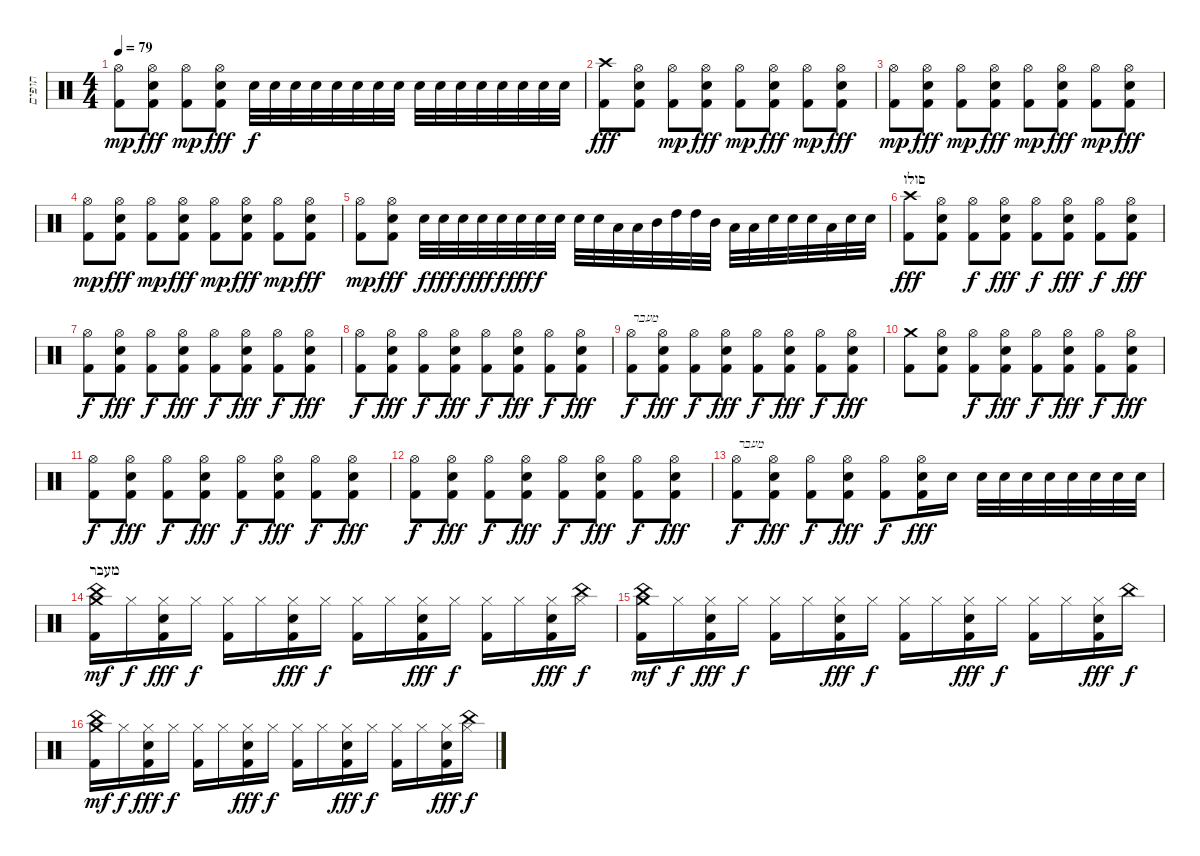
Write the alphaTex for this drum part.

\track ("תופים" "תופים") {instrument percussion}
\staff {score}
\articulation defaults
\ts (4 4)
\tempo 79
\clef neutral
\ks c
("Hi-Hat (open)" "Kick (hit) 2").8{dy mp} ("Hi-Hat (open)" "Snare (hit) 2" "Kick (hit) 2").8{dy fff} ("Hi-Hat (open)" "Kick (hit) 2").8{dy mp} ("Hi-Hat (open)" "Snare (hit) 2" "Kick (hit) 2").8{dy fff} "Snare (hit) 2".32{dy f} "Snare (hit) 2".32 "Snare (hit) 2".32 "Snare (hit) 2".32 "Snare (hit) 2".32 "Snare (hit) 2".32 "Snare (hit) 2".32 "Snare (hit) 2".32 "Snare (hit) 2".32 "Snare (hit) 2".32 "Snare (hit) 2".32 "Snare (hit) 2".32 "Snare (hit) 2".32 "Snare (hit) 2".32 "Snare (hit) 2".32 "Snare (hit) 2".32 |
("Crash high (hit)" "Kick (hit) 2").8{dy fff} ("Hi-Hat (open)" "Snare (hit) 2" "Kick (hit) 2").8 ("Hi-Hat (open)" "Kick (hit) 2").8{dy mp} ("Hi-Hat (open)" "Snare (hit) 2" "Kick (hit) 2").8{dy fff} ("Hi-Hat (open)" "Kick (hit) 2").8{dy mp} ("Hi-Hat (open)" "Snare (hit) 2" "Kick (hit) 2").8{dy fff} ("Hi-Hat (open)" "Kick (hit) 2").8{dy mp} ("Hi-Hat (open)" "Snare (hit) 2" "Kick (hit) 2").8{dy fff} |
("Hi-Hat (open)" "Kick (hit) 2").8{dy mp} ("Hi-Hat (open)" "Snare (hit) 2" "Kick (hit) 2").8{dy fff} ("Hi-Hat (open)" "Kick (hit) 2").8{dy mp} ("Hi-Hat (open)" "Snare (hit) 2" "Kick (hit) 2").8{dy fff} ("Hi-Hat (open)" "Kick (hit) 2").8{dy mp} ("Hi-Hat (open)" "Snare (hit) 2" "Kick (hit) 2").8{dy fff} ("Hi-Hat (open)" "Kick (hit) 2").8{dy mp} ("Hi-Hat (open)" "Snare (hit) 2" "Kick (hit) 2").8{dy fff} |
("Hi-Hat (open)" "Kick (hit) 2").8{dy mp} ("Hi-Hat (open)" "Snare (hit) 2" "Kick (hit) 2").8{dy fff} ("Hi-Hat (open)" "Kick (hit) 2").8{dy mp} ("Hi-Hat (open)" "Snare (hit) 2" "Kick (hit) 2").8{dy fff} ("Hi-Hat (open)" "Kick (hit) 2").8{dy mp} ("Hi-Hat (open)" "Snare (hit) 2" "Kick (hit) 2").8{dy fff} ("Hi-Hat (open)" "Kick (hit) 2").8{dy mp} ("Hi-Hat (open)" "Snare (hit) 2" "Kick (hit) 2").8{dy fff} |
("Hi-Hat (open)" "Kick (hit) 2").8{dy mp} ("Hi-Hat (open)" "Snare (hit) 2" "Kick (hit) 2").8{dy fff} "Snare (hit) 2".32{dy f} "Snare (hit) 2".32{dy fff} "Snare (hit) 2".32{dy f} "Snare (hit) 2".32{dy fff} "Snare (hit) 2".32{dy f} "Snare (hit) 2".32{dy fff} "Snare (hit) 2".32{dy f} "Snare (hit) 2".32 "Snare (hit) 2".32 "Snare (hit) 2".32 "Low Tom (hit)".32 "Low Tom (hit)".32 "Mid Tom (hit)".32 "High Tom (hit)".32 "High Tom (hit)".32 "Mid Tom (hit)".32 "Low Tom (hit)".32 "Low Tom (hit)".32 "Snare (hit) 2".32 "Snare (hit) 2".32 "Snare (hit) 2".32 "Low Tom (hit)".32 "Snare (hit) 2".32 "Snare (hit) 2".32 |
\section ("" "סולו")
("Crash high (hit)" "Kick (hit) 2").8{dy fff} ("Hi-Hat (open)" "Snare (hit) 2" "Kick (hit) 2").8 ("Hi-Hat (open)" "Kick (hit) 2").8{dy f} ("Hi-Hat (open)" "Snare (hit) 2" "Kick (hit) 2").8{dy fff} ("Hi-Hat (open)" "Kick (hit) 2").8{dy f} ("Hi-Hat (open)" "Snare (hit) 2" "Kick (hit) 2").8{dy fff} ("Hi-Hat (open)" "Kick (hit) 2").8{dy f} ("Hi-Hat (open)" "Snare (hit) 2" "Kick (hit) 2").8{dy fff} |
("Hi-Hat (open)" "Kick (hit) 2").8{dy f} ("Hi-Hat (open)" "Snare (hit) 2" "Kick (hit) 2").8{dy fff} ("Hi-Hat (open)" "Kick (hit) 2").8{dy f} ("Hi-Hat (open)" "Snare (hit) 2" "Kick (hit) 2").8{dy fff} ("Hi-Hat (open)" "Kick (hit) 2").8{dy f} ("Hi-Hat (open)" "Snare (hit) 2" "Kick (hit) 2").8{dy fff} ("Hi-Hat (open)" "Kick (hit) 2").8{dy f} ("Hi-Hat (open)" "Snare (hit) 2" "Kick (hit) 2").8{dy fff} |
("Hi-Hat (open)" "Kick (hit) 2").8{dy f} ("Hi-Hat (open)" "Snare (hit) 2" "Kick (hit) 2").8{dy fff} ("Hi-Hat (open)" "Kick (hit) 2").8{dy f} ("Hi-Hat (open)" "Snare (hit) 2" "Kick (hit) 2").8{dy fff} ("Hi-Hat (open)" "Kick (hit) 2").8{dy f} ("Hi-Hat (open)" "Snare (hit) 2" "Kick (hit) 2").8{dy fff} ("Hi-Hat (open)" "Kick (hit) 2").8{dy f} ("Hi-Hat (open)" "Snare (hit) 2" "Kick (hit) 2").8{dy fff} |
("Hi-Hat (open)" "Kick (hit) 2").8{txt "מעבר" dy f} ("Hi-Hat (open)" "Snare (hit) 2" "Kick (hit) 2").8{dy fff} ("Hi-Hat (open)" "Kick (hit) 2").8{dy f} ("Hi-Hat (open)" "Snare (hit) 2" "Kick (hit) 2").8{dy fff} ("Hi-Hat (open)" "Kick (hit) 2").8{dy f} ("Hi-Hat (open)" "Snare (hit) 2" "Kick (hit) 2").8{dy fff} ("Hi-Hat (open)" "Kick (hit) 2").8{dy f} ("Hi-Hat (open)" "Snare (hit) 2" "Kick (hit) 2").8{dy fff} |
("Crash medium (hit)" "Kick (hit) 2").8 ("Hi-Hat (open)" "Snare (hit) 2" "Kick (hit) 2").8 ("Hi-Hat (open)" "Kick (hit) 2").8{dy f} ("Hi-Hat (open)" "Snare (hit) 2" "Kick (hit) 2").8{dy fff} ("Hi-Hat (open)" "Kick (hit) 2").8{dy f} ("Hi-Hat (open)" "Snare (hit) 2" "Kick (hit) 2").8{dy fff} ("Hi-Hat (open)" "Kick (hit) 2").8{dy f} ("Hi-Hat (open)" "Snare (hit) 2" "Kick (hit) 2").8{dy fff} |
("Hi-Hat (open)" "Kick (hit) 2").8{dy f} ("Hi-Hat (open)" "Snare (hit) 2" "Kick (hit) 2").8{dy fff} ("Hi-Hat (open)" "Kick (hit) 2").8{dy f} ("Hi-Hat (open)" "Snare (hit) 2" "Kick (hit) 2").8{dy fff} ("Hi-Hat (open)" "Kick (hit) 2").8{dy f} ("Hi-Hat (open)" "Snare (hit) 2" "Kick (hit) 2").8{dy fff} ("Hi-Hat (open)" "Kick (hit) 2").8{dy f} ("Hi-Hat (open)" "Snare (hit) 2" "Kick (hit) 2").8{dy fff} |
("Hi-Hat (open)" "Kick (hit) 2").8{dy f} ("Hi-Hat (open)" "Snare (hit) 2" "Kick (hit) 2").8{dy fff} ("Hi-Hat (open)" "Kick (hit) 2").8{dy f} ("Hi-Hat (open)" "Snare (hit) 2" "Kick (hit) 2").8{dy fff} ("Hi-Hat (open)" "Kick (hit) 2").8{dy f} ("Hi-Hat (open)" "Snare (hit) 2" "Kick (hit) 2").8{dy fff} ("Hi-Hat (open)" "Kick (hit) 2").8{dy f} ("Hi-Hat (open)" "Snare (hit) 2" "Kick (hit) 2").8{dy fff} |
("Hi-Hat (open)" "Kick (hit) 2").8{txt "מעבר" dy f} ("Hi-Hat (open)" "Snare (hit) 2" "Kick (hit) 2").8{dy fff} ("Hi-Hat (open)" "Kick (hit) 2").8{dy f} ("Hi-Hat (open)" "Snare (hit) 2" "Kick (hit) 2").8{dy fff} ("Hi-Hat (open)" "Kick (hit) 2").8{dy f} ("Hi-Hat (open)" "Snare (hit) 2" "Kick (hit) 2").16{dy fff} "Snare (hit) 2".16 "Snare (hit) 2".32 "Snare (hit) 2".32 "Snare (hit) 2".32 "Snare (hit) 2".32 "Snare (hit) 2".32 "Snare (hit) 2".32 "Snare (hit) 2".32 "Snare (hit) 2".32 |
\section ("" "מעבר")
("Crash medium (hit)" "China (hit)" "Kick (hit) 2").16{dy mf} "Hi-Hat (closed)".16{dy f} ("Hi-Hat (closed)" "Snare (hit) 2" "Kick (hit) 2").16{dy fff} "Hi-Hat (closed)".16{dy f} ("Hi-Hat (closed)" "Kick (hit) 2").16 "Hi-Hat (closed)".16 ("Hi-Hat (closed)" "Snare (hit) 2" "Kick (hit) 2").16{dy fff} "Hi-Hat (closed)".16{dy f} ("Hi-Hat (closed)" "Kick (hit) 2").16 "Hi-Hat (closed)".16 ("Hi-Hat (closed)" "Snare (hit) 2" "Kick (hit) 2").16{dy fff} "Hi-Hat (closed)".16{dy f} ("Hi-Hat (closed)" "Kick (hit) 2").16 "Hi-Hat (closed)".16 ("Hi-Hat (closed)" "Snare (hit) 2" "Kick (hit) 2").16{dy fff} ("Hi-Hat (closed)" "China (hit)").16{dy f} |
("Crash medium (hit)" "China (hit)" "Kick (hit) 2").16{dy mf} "Hi-Hat (closed)".16{dy f} ("Hi-Hat (closed)" "Snare (hit) 2" "Kick (hit) 2").16{dy fff} "Hi-Hat (closed)".16{dy f} ("Hi-Hat (closed)" "Kick (hit) 2").16 "Hi-Hat (closed)".16 ("Hi-Hat (closed)" "Snare (hit) 2" "Kick (hit) 2").16{dy fff} "Hi-Hat (closed)".16{dy f} ("Hi-Hat (closed)" "Kick (hit) 2").16 "Hi-Hat (closed)".16 ("Hi-Hat (closed)" "Snare (hit) 2" "Kick (hit) 2").16{dy fff} "Hi-Hat (closed)".16{dy f} ("Hi-Hat (closed)" "Kick (hit) 2").16 "Hi-Hat (closed)".16 ("Hi-Hat (closed)" "Snare (hit) 2" "Kick (hit) 2").16{dy fff} "China (hit)".16{dy f} |
("Crash medium (hit)" "China (hit)" "Kick (hit) 2").16{dy mf} "Hi-Hat (closed)".16{dy f} ("Hi-Hat (closed)" "Snare (hit) 2" "Kick (hit) 2").16{dy fff} "Hi-Hat (closed)".16{dy f} ("Hi-Hat (closed)" "Kick (hit) 2").16 "Hi-Hat (closed)".16 ("Hi-Hat (closed)" "Snare (hit) 2" "Kick (hit) 2").16{dy fff} "Hi-Hat (closed)".16{dy f} ("Hi-Hat (closed)" "Kick (hit) 2").16 "Hi-Hat (closed)".16 ("Hi-Hat (closed)" "Snare (hit) 2" "Kick (hit) 2").16{dy fff} "Hi-Hat (closed)".16{dy f} ("Hi-Hat (closed)" "Kick (hit) 2").16 "Hi-Hat (closed)".16 ("Hi-Hat (closed)" "Snare (hit) 2" "Kick (hit) 2").16{dy fff} ("Hi-Hat (closed)" "China (hit)").16{dy f}
